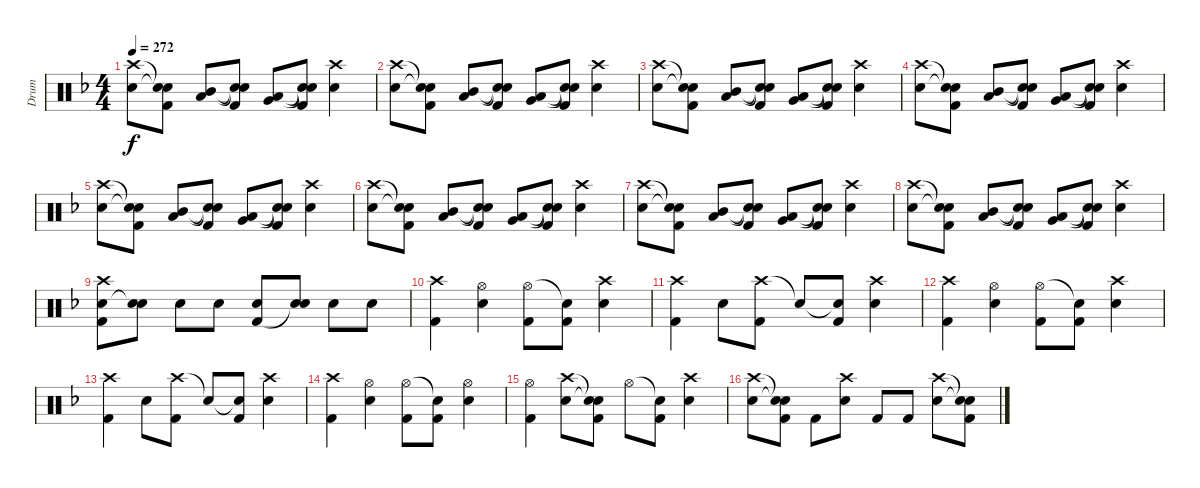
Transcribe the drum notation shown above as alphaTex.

\track ("Drum" "Drum") {instrument percussion}
\staff {score}
\articulation defaults
\ts (4 4)
\tempo 272
\clef neutral
\ks f
("Crash high (hit)" "Electric Snare (hit)").8{dy f} ("Snare (hit)"{t} "Snare (hit)"{t} "Kick (hit) 2").8 ("Mid Tom (hit)" "Low Tom (hit)").8 ("Snare (hit)"{t} "Snare (hit)"{t} "Kick (hit) 2").8 ("Low Tom (hit)" "Very Low Tom (hit)").8 ("Snare (hit)"{t} "Snare (hit)"{t} "Kick (hit) 2").8 ("Crash high (hit)" "Electric Snare (hit)").4 |
("Crash high (hit)" "Electric Snare (hit)").8 ("Snare (hit)"{t} "Snare (hit)"{t} "Kick (hit) 2").8 ("Mid Tom (hit)" "Low Tom (hit)").8 ("Snare (hit)"{t} "Snare (hit)"{t} "Kick (hit) 2").8 ("Low Tom (hit)" "Very Low Tom (hit)").8 ("Snare (hit)"{t} "Snare (hit)"{t} "Kick (hit) 2").8 ("Crash high (hit)" "Electric Snare (hit)").4 |
("Crash high (hit)" "Electric Snare (hit)").8 ("Snare (hit)"{t} "Snare (hit)"{t} "Kick (hit) 2").8 ("Mid Tom (hit)" "Low Tom (hit)").8 ("Snare (hit)"{t} "Snare (hit)"{t} "Kick (hit) 2").8 ("Low Tom (hit)" "Very Low Tom (hit)").8 ("Snare (hit)"{t} "Snare (hit)"{t} "Kick (hit) 2").8 ("Crash high (hit)" "Electric Snare (hit)").4 |
("Crash high (hit)" "Electric Snare (hit)").8 ("Snare (hit)"{t} "Snare (hit)"{t} "Kick (hit) 2").8 ("Mid Tom (hit)" "Low Tom (hit)").8 ("Snare (hit)"{t} "Snare (hit)"{t} "Kick (hit) 2").8 ("Low Tom (hit)" "Very Low Tom (hit)").8 ("Snare (hit)"{t} "Snare (hit)"{t} "Kick (hit) 2").8 ("Crash high (hit)" "Electric Snare (hit)").4 |
("Crash high (hit)" "Electric Snare (hit)").8 ("Snare (hit)"{t} "Snare (hit)"{t} "Kick (hit) 2").8 ("Mid Tom (hit)" "Low Tom (hit)").8 ("Snare (hit)"{t} "Snare (hit)"{t} "Kick (hit) 2").8 ("Low Tom (hit)" "Very Low Tom (hit)").8 ("Snare (hit)"{t} "Snare (hit)"{t} "Kick (hit) 2").8 ("Crash high (hit)" "Electric Snare (hit)").4 |
("Crash high (hit)" "Electric Snare (hit)").8 ("Snare (hit)"{t} "Snare (hit)"{t} "Kick (hit) 2").8 ("Mid Tom (hit)" "Low Tom (hit)").8 ("Snare (hit)"{t} "Snare (hit)"{t} "Kick (hit) 2").8 ("Low Tom (hit)" "Very Low Tom (hit)").8 ("Snare (hit)"{t} "Snare (hit)"{t} "Kick (hit) 2").8 ("Crash high (hit)" "Electric Snare (hit)").4 |
("Crash high (hit)" "Electric Snare (hit)").8 ("Snare (hit)"{t} "Snare (hit)"{t} "Kick (hit) 2").8 ("Mid Tom (hit)" "Low Tom (hit)").8 ("Snare (hit)"{t} "Snare (hit)"{t} "Kick (hit) 2").8 ("Low Tom (hit)" "Very Low Tom (hit)").8 ("Snare (hit)"{t} "Snare (hit)"{t} "Kick (hit) 2").8 ("Crash high (hit)" "Electric Snare (hit)").4 |
("Crash high (hit)" "Electric Snare (hit)").8 ("Snare (hit)"{t} "Snare (hit)"{t} "Kick (hit) 2").8 ("Mid Tom (hit)" "Low Tom (hit)").8 ("Snare (hit)"{t} "Snare (hit)"{t} "Kick (hit) 2").8 ("Low Tom (hit)" "Very Low Tom (hit)").8 ("Snare (hit)"{t} "Snare (hit)"{t} "Kick (hit) 2").8 ("Crash high (hit)" "Electric Snare (hit)").4 |
("Crash high (hit)" "Electric Snare (hit)" "Kick (hit) 2").8 ("Electric Snare (hit)" "Snare (hit)"{t}).8 "Electric Snare (hit)".8 "Electric Snare (hit)".8 ("Electric Snare (hit)" "Kick (hit) 2").8 ("Electric Snare (hit)" "Snare (hit)"{t}).8 "Electric Snare (hit)".8 "Electric Snare (hit)".8 |
("Crash high (hit)" "Kick (hit) 2").4 ("Hi-Hat (open)" "Electric Snare (hit)").4 ("Hi-Hat (open)" "Kick (hit) 2").8 ("Snare (hit)"{t} "Kick (hit) 2").8 ("Crash high (hit)" "Electric Snare (hit)").4 |
("Crash high (hit)" "Kick (hit) 2").4 "Electric Snare (hit)".8 ("Crash high (hit)" "Kick (hit) 2").8 "Snare (hit)"{t}.8 ("Snare (hit)"{t} "Kick (hit) 2").8 ("Crash high (hit)" "Electric Snare (hit)").4 |
("Crash high (hit)" "Kick (hit) 2").4 ("Hi-Hat (open)" "Electric Snare (hit)").4 ("Hi-Hat (open)" "Kick (hit) 2").8 ("Snare (hit)"{t} "Kick (hit) 2").8 ("Crash high (hit)" "Electric Snare (hit)").4 |
("Crash high (hit)" "Kick (hit) 2").4 "Electric Snare (hit)".8 ("Crash high (hit)" "Kick (hit) 2").8 "Snare (hit)"{t}.8 ("Snare (hit)"{t} "Kick (hit) 2").8 ("Crash high (hit)" "Electric Snare (hit)").4 |
("Crash high (hit)" "Kick (hit) 2").4 ("Hi-Hat (open)" "Electric Snare (hit)").4 ("Hi-Hat (open)" "Kick (hit) 2").8 ("Snare (hit)"{t} "Kick (hit) 2").8 ("Hi-Hat (open)" "Electric Snare (hit)").4 |
("Hi-Hat (open)" "Kick (hit) 2").4 ("Crash high (hit)" "Electric Snare (hit)").8 ("Snare (hit)"{t} "Snare (hit)"{t} "Kick (hit) 2").8 "Hi-Hat (open)".8 ("Snare (hit)"{t} "Kick (hit) 2").8 ("Crash high (hit)" "Electric Snare (hit)").4 |
("Crash high (hit)" "Electric Snare (hit)").8 ("Snare (hit)"{t} "Snare (hit)"{t} "Kick (hit) 2").8 "Kick (hit) 2".8 ("Crash high (hit)" "Electric Snare (hit)").8 "Kick (hit) 2".8 "Kick (hit) 2".8 ("Crash high (hit)" "Electric Snare (hit)").8 ("Snare (hit)"{t} "Snare (hit)"{t} "Kick (hit) 2").8
